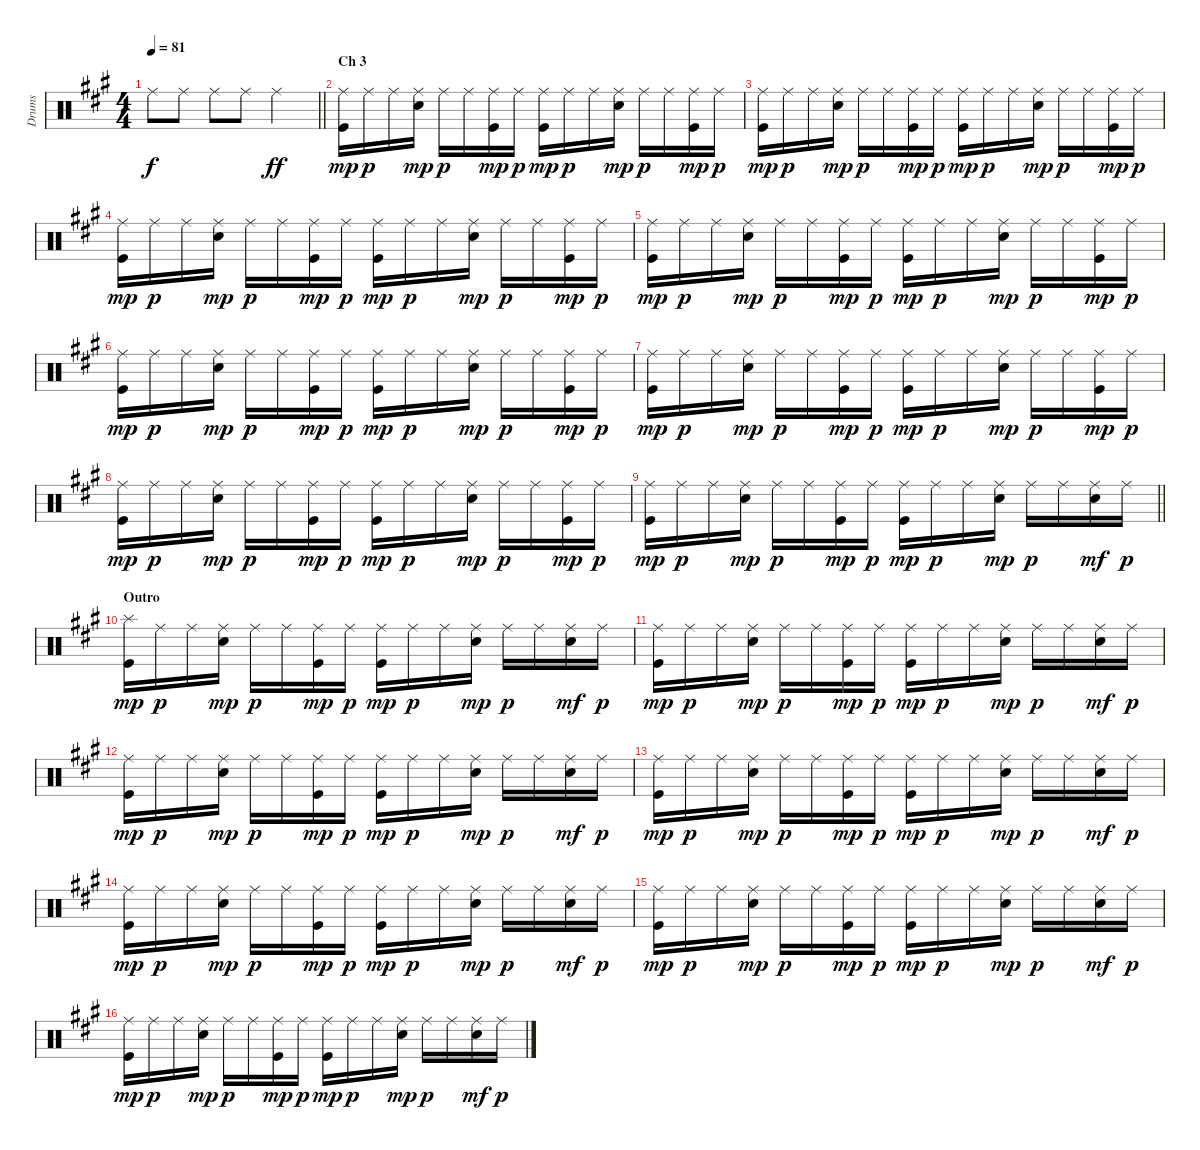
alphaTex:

\track ("Drums" "Drums") {instrument percussion}
\staff {score}
\articulation defaults
\ts (4 4)
\tempo 81
\clef neutral
\barLineRight lightlight
\ks f#minor "Ride (middle)".8{dy f} "Ride (middle)".8 "Ride (middle)".8 "Ride (middle)".8 "Ride (middle)".2{dy ff}
|
\section ("" "Ch 3")
("Ride (middle)" "Kick (hit)").16{dy mp} "Ride (middle)".16{dy p} "Ride (middle)".16 ("Ride (middle)" "Electric Snare (hit)").16{dy mp} "Ride (middle)".16{dy p} "Ride (middle)".16 ("Ride (middle)" "Kick (hit)").16{dy mp} "Ride (middle)".16{dy p} ("Ride (middle)" "Kick (hit)").16{dy mp} "Ride (middle)".16{dy p} "Ride (middle)".16 ("Ride (middle)" "Electric Snare (hit)").16{dy mp} "Ride (middle)".16{dy p} "Ride (middle)".16 ("Ride (middle)" "Kick (hit)").16{dy mp} "Ride (middle)".16{dy p} |
("Ride (middle)" "Kick (hit)").16{dy mp} "Ride (middle)".16{dy p} "Ride (middle)".16 ("Ride (middle)" "Electric Snare (hit)").16{dy mp} "Ride (middle)".16{dy p} "Ride (middle)".16 ("Ride (middle)" "Kick (hit)").16{dy mp} "Ride (middle)".16{dy p} ("Ride (middle)" "Kick (hit)").16{dy mp} "Ride (middle)".16{dy p} "Ride (middle)".16 ("Ride (middle)" "Electric Snare (hit)").16{dy mp} "Ride (middle)".16{dy p} "Ride (middle)".16 ("Ride (middle)" "Kick (hit)").16{dy mp} "Ride (middle)".16{dy p} |
("Ride (middle)" "Kick (hit)").16{dy mp} "Ride (middle)".16{dy p} "Ride (middle)".16 ("Ride (middle)" "Electric Snare (hit)").16{dy mp} "Ride (middle)".16{dy p} "Ride (middle)".16 ("Ride (middle)" "Kick (hit)").16{dy mp} "Ride (middle)".16{dy p} ("Ride (middle)" "Kick (hit)").16{dy mp} "Ride (middle)".16{dy p} "Ride (middle)".16 ("Ride (middle)" "Electric Snare (hit)").16{dy mp} "Ride (middle)".16{dy p} "Ride (middle)".16 ("Ride (middle)" "Kick (hit)").16{dy mp} "Ride (middle)".16{dy p} |
("Ride (middle)" "Kick (hit)").16{dy mp} "Ride (middle)".16{dy p} "Ride (middle)".16 ("Ride (middle)" "Electric Snare (hit)").16{dy mp} "Ride (middle)".16{dy p} "Ride (middle)".16 ("Ride (middle)" "Kick (hit)").16{dy mp} "Ride (middle)".16{dy p} ("Ride (middle)" "Kick (hit)").16{dy mp} "Ride (middle)".16{dy p} "Ride (middle)".16 ("Ride (middle)" "Electric Snare (hit)").16{dy mp} "Ride (middle)".16{dy p} "Ride (middle)".16 ("Ride (middle)" "Kick (hit)").16{dy mp} "Ride (middle)".16{dy p} |
("Ride (middle)" "Kick (hit)").16{dy mp} "Ride (middle)".16{dy p} "Ride (middle)".16 ("Ride (middle)" "Electric Snare (hit)").16{dy mp} "Ride (middle)".16{dy p} "Ride (middle)".16 ("Ride (middle)" "Kick (hit)").16{dy mp} "Ride (middle)".16{dy p} ("Ride (middle)" "Kick (hit)").16{dy mp} "Ride (middle)".16{dy p} "Ride (middle)".16 ("Ride (middle)" "Electric Snare (hit)").16{dy mp} "Ride (middle)".16{dy p} "Ride (middle)".16 ("Ride (middle)" "Kick (hit)").16{dy mp} "Ride (middle)".16{dy p} |
("Ride (middle)" "Kick (hit)").16{dy mp} "Ride (middle)".16{dy p} "Ride (middle)".16 ("Ride (middle)" "Electric Snare (hit)").16{dy mp} "Ride (middle)".16{dy p} "Ride (middle)".16 ("Ride (middle)" "Kick (hit)").16{dy mp} "Ride (middle)".16{dy p} ("Ride (middle)" "Kick (hit)").16{dy mp} "Ride (middle)".16{dy p} "Ride (middle)".16 ("Ride (middle)" "Electric Snare (hit)").16{dy mp} "Ride (middle)".16{dy p} "Ride (middle)".16 ("Ride (middle)" "Kick (hit)").16{dy mp} "Ride (middle)".16{dy p} |
("Ride (middle)" "Kick (hit)").16{dy mp} "Ride (middle)".16{dy p} "Ride (middle)".16 ("Ride (middle)" "Electric Snare (hit)").16{dy mp} "Ride (middle)".16{dy p} "Ride (middle)".16 ("Ride (middle)" "Kick (hit)").16{dy mp} "Ride (middle)".16{dy p} ("Ride (middle)" "Kick (hit)").16{dy mp} "Ride (middle)".16{dy p} "Ride (middle)".16 ("Ride (middle)" "Electric Snare (hit)").16{dy mp} "Ride (middle)".16{dy p} "Ride (middle)".16 ("Ride (middle)" "Kick (hit)").16{dy mp} "Ride (middle)".16{dy p} |
\barLineRight lightlight
("Ride (middle)" "Kick (hit)").16{dy mp} "Ride (middle)".16{dy p} "Ride (middle)".16 ("Ride (middle)" "Electric Snare (hit)").16{dy mp} "Ride (middle)".16{dy p} "Ride (middle)".16 ("Ride (middle)" "Kick (hit)").16{dy mp} "Ride (middle)".16{dy p} ("Ride (middle)" "Kick (hit)").16{dy mp} "Ride (middle)".16{dy p} "Ride (middle)".16 ("Ride (middle)" "Electric Snare (hit)").16{dy mp} "Ride (middle)".16{dy p} "Ride (middle)".16 ("Ride (middle)" "Electric Snare (hit)").16{dy mf} "Ride (middle)".16{dy p} |
\section ("" "Outro")
("Splash (hit)" "Kick (hit)").16{dy mp} "Ride (middle)".16{dy p} "Ride (middle)".16 ("Ride (middle)" "Electric Snare (hit)").16{dy mp} "Ride (middle)".16{dy p} "Ride (middle)".16 ("Ride (middle)" "Kick (hit)").16{dy mp} "Ride (middle)".16{dy p} ("Ride (middle)" "Kick (hit)").16{dy mp} "Ride (middle)".16{dy p} "Ride (middle)".16 ("Ride (middle)" "Electric Snare (hit)").16{dy mp} "Ride (middle)".16{dy p} "Ride (middle)".16 ("Ride (middle)" "Electric Snare (hit)").16{dy mf} "Ride (middle)".16{dy p} |
("Ride (middle)" "Kick (hit)").16{dy mp} "Ride (middle)".16{dy p} "Ride (middle)".16 ("Ride (middle)" "Electric Snare (hit)").16{dy mp} "Ride (middle)".16{dy p} "Ride (middle)".16 ("Ride (middle)" "Kick (hit)").16{dy mp} "Ride (middle)".16{dy p} ("Ride (middle)" "Kick (hit)").16{dy mp} "Ride (middle)".16{dy p} "Ride (middle)".16 ("Ride (middle)" "Electric Snare (hit)").16{dy mp} "Ride (middle)".16{dy p} "Ride (middle)".16 ("Ride (middle)" "Electric Snare (hit)").16{dy mf} "Ride (middle)".16{dy p} |
("Ride (middle)" "Kick (hit)").16{dy mp} "Ride (middle)".16{dy p} "Ride (middle)".16 ("Ride (middle)" "Electric Snare (hit)").16{dy mp} "Ride (middle)".16{dy p} "Ride (middle)".16 ("Ride (middle)" "Kick (hit)").16{dy mp} "Ride (middle)".16{dy p} ("Ride (middle)" "Kick (hit)").16{dy mp} "Ride (middle)".16{dy p} "Ride (middle)".16 ("Ride (middle)" "Electric Snare (hit)").16{dy mp} "Ride (middle)".16{dy p} "Ride (middle)".16 ("Ride (middle)" "Electric Snare (hit)").16{dy mf} "Ride (middle)".16{dy p} |
("Ride (middle)" "Kick (hit)").16{dy mp} "Ride (middle)".16{dy p} "Ride (middle)".16 ("Ride (middle)" "Electric Snare (hit)").16{dy mp} "Ride (middle)".16{dy p} "Ride (middle)".16 ("Ride (middle)" "Kick (hit)").16{dy mp} "Ride (middle)".16{dy p} ("Ride (middle)" "Kick (hit)").16{dy mp} "Ride (middle)".16{dy p} "Ride (middle)".16 ("Ride (middle)" "Electric Snare (hit)").16{dy mp} "Ride (middle)".16{dy p} "Ride (middle)".16 ("Ride (middle)" "Electric Snare (hit)").16{dy mf} "Ride (middle)".16{dy p} |
("Ride (middle)" "Kick (hit)").16{dy mp} "Ride (middle)".16{dy p} "Ride (middle)".16 ("Ride (middle)" "Electric Snare (hit)").16{dy mp} "Ride (middle)".16{dy p} "Ride (middle)".16 ("Ride (middle)" "Kick (hit)").16{dy mp} "Ride (middle)".16{dy p} ("Ride (middle)" "Kick (hit)").16{dy mp} "Ride (middle)".16{dy p} "Ride (middle)".16 ("Ride (middle)" "Electric Snare (hit)").16{dy mp} "Ride (middle)".16{dy p} "Ride (middle)".16 ("Ride (middle)" "Electric Snare (hit)").16{dy mf} "Ride (middle)".16{dy p} |
("Ride (middle)" "Kick (hit)").16{dy mp} "Ride (middle)".16{dy p} "Ride (middle)".16 ("Ride (middle)" "Electric Snare (hit)").16{dy mp} "Ride (middle)".16{dy p} "Ride (middle)".16 ("Ride (middle)" "Kick (hit)").16{dy mp} "Ride (middle)".16{dy p} ("Ride (middle)" "Kick (hit)").16{dy mp} "Ride (middle)".16{dy p} "Ride (middle)".16 ("Ride (middle)" "Electric Snare (hit)").16{dy mp} "Ride (middle)".16{dy p} "Ride (middle)".16 ("Ride (middle)" "Electric Snare (hit)").16{dy mf} "Ride (middle)".16{dy p} |
("Ride (middle)" "Kick (hit)").16{dy mp} "Ride (middle)".16{dy p} "Ride (middle)".16 ("Ride (middle)" "Electric Snare (hit)").16{dy mp} "Ride (middle)".16{dy p} "Ride (middle)".16 ("Ride (middle)" "Kick (hit)").16{dy mp} "Ride (middle)".16{dy p} ("Ride (middle)" "Kick (hit)").16{dy mp} "Ride (middle)".16{dy p} "Ride (middle)".16 ("Ride (middle)" "Electric Snare (hit)").16{dy mp} "Ride (middle)".16{dy p} "Ride (middle)".16 ("Ride (middle)" "Electric Snare (hit)").16{dy mf} "Ride (middle)".16{dy p}
